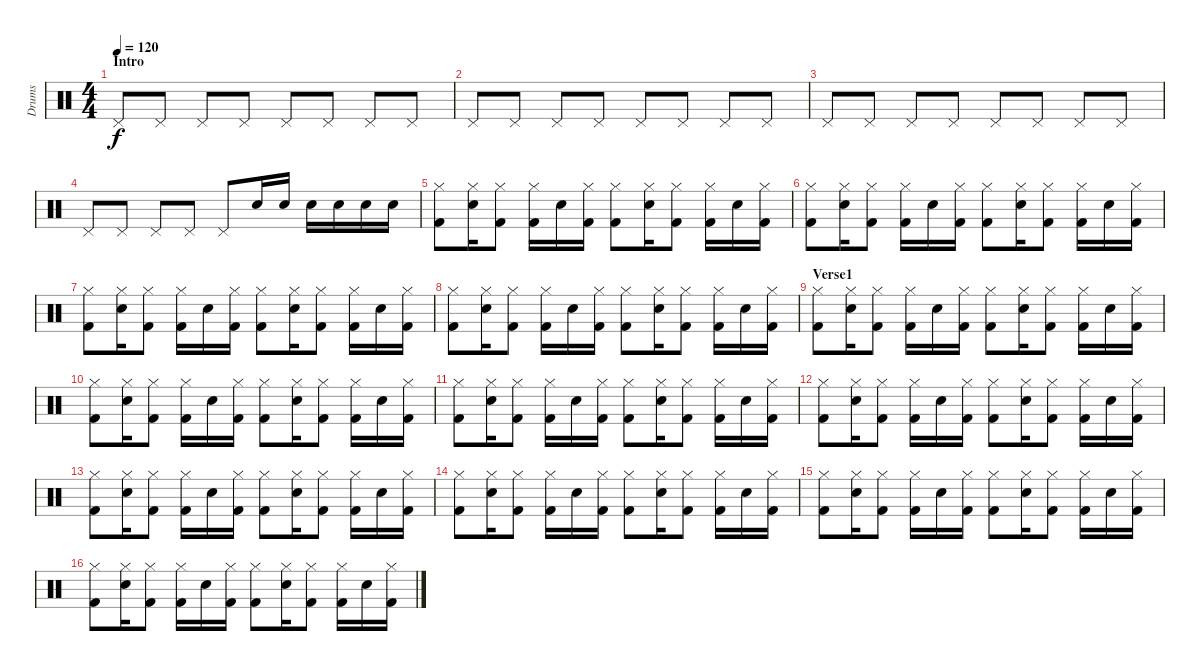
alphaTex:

\track ("Drums" "Drums") {instrument percussion}
\staff {score}
\articulation defaults
\ts (4 4)
\section ("" "Intro")
\tempo 120
\clef neutral
\ks c "Pedal Hi-Hat (hit)".8{dy f} "Pedal Hi-Hat (hit)".8 "Pedal Hi-Hat (hit)".8 "Pedal Hi-Hat (hit)".8 "Pedal Hi-Hat (hit)".8 "Pedal Hi-Hat (hit)".8 "Pedal Hi-Hat (hit)".8 "Pedal Hi-Hat (hit)".8
|
"Pedal Hi-Hat (hit)".8 "Pedal Hi-Hat (hit)".8 "Pedal Hi-Hat (hit)".8 "Pedal Hi-Hat (hit)".8 "Pedal Hi-Hat (hit)".8 "Pedal Hi-Hat (hit)".8 "Pedal Hi-Hat (hit)".8 "Pedal Hi-Hat (hit)".8 |
"Pedal Hi-Hat (hit)".8 "Pedal Hi-Hat (hit)".8 "Pedal Hi-Hat (hit)".8 "Pedal Hi-Hat (hit)".8 "Pedal Hi-Hat (hit)".8 "Pedal Hi-Hat (hit)".8 "Pedal Hi-Hat (hit)".8 "Pedal Hi-Hat (hit)".8 |
"Pedal Hi-Hat (hit)".8 "Pedal Hi-Hat (hit)".8 "Pedal Hi-Hat (hit)".8 "Pedal Hi-Hat (hit)".8 "Pedal Hi-Hat (hit)".8 "Electric Snare (hit)".16 "Electric Snare (hit)".16 "Electric Snare (hit)".16 "Electric Snare (hit)".16 "Electric Snare (hit)".16 "Electric Snare (hit)".16 |
("Hi-Hat (closed)" "Kick (hit) 2").8 ("Hi-Hat (closed)" "Electric Snare (hit)").16 ("Hi-Hat (closed)" "Kick (hit) 2").8 ("Hi-Hat (closed)" "Kick (hit) 2").16 "Electric Snare (hit)".16 ("Hi-Hat (closed)" "Kick (hit) 2").16 ("Hi-Hat (closed)" "Kick (hit) 2").8 ("Hi-Hat (closed)" "Electric Snare (hit)").16 ("Hi-Hat (closed)" "Kick (hit) 2").8 ("Hi-Hat (closed)" "Kick (hit) 2").16 "Electric Snare (hit)".16 ("Hi-Hat (closed)" "Kick (hit) 2").16 |
("Hi-Hat (closed)" "Kick (hit) 2").8 ("Hi-Hat (closed)" "Electric Snare (hit)").16 ("Hi-Hat (closed)" "Kick (hit) 2").8 ("Hi-Hat (closed)" "Kick (hit) 2").16 "Electric Snare (hit)".16 ("Hi-Hat (closed)" "Kick (hit) 2").16 ("Hi-Hat (closed)" "Kick (hit) 2").8 ("Hi-Hat (closed)" "Electric Snare (hit)").16 ("Hi-Hat (closed)" "Kick (hit) 2").8 ("Hi-Hat (closed)" "Kick (hit) 2").16 "Electric Snare (hit)".16 ("Hi-Hat (closed)" "Kick (hit) 2").16 |
("Hi-Hat (closed)" "Kick (hit) 2").8 ("Hi-Hat (closed)" "Electric Snare (hit)").16 ("Hi-Hat (closed)" "Kick (hit) 2").8 ("Hi-Hat (closed)" "Kick (hit) 2").16 "Electric Snare (hit)".16 ("Hi-Hat (closed)" "Kick (hit) 2").16 ("Hi-Hat (closed)" "Kick (hit) 2").8 ("Hi-Hat (closed)" "Electric Snare (hit)").16 ("Hi-Hat (closed)" "Kick (hit) 2").8 ("Hi-Hat (closed)" "Kick (hit) 2").16 "Electric Snare (hit)".16 ("Hi-Hat (closed)" "Kick (hit) 2").16 |
("Hi-Hat (closed)" "Kick (hit) 2").8 ("Hi-Hat (closed)" "Electric Snare (hit)").16 ("Hi-Hat (closed)" "Kick (hit) 2").8 ("Hi-Hat (closed)" "Kick (hit) 2").16 "Electric Snare (hit)".16 ("Hi-Hat (closed)" "Kick (hit) 2").16 ("Hi-Hat (closed)" "Kick (hit) 2").8 ("Hi-Hat (closed)" "Electric Snare (hit)").16 ("Hi-Hat (closed)" "Kick (hit) 2").8 ("Hi-Hat (closed)" "Kick (hit) 2").16 "Electric Snare (hit)".16 ("Hi-Hat (closed)" "Kick (hit) 2").16 |
\section ("" "Verse1")
("Hi-Hat (closed)" "Kick (hit) 2").8 ("Hi-Hat (closed)" "Electric Snare (hit)").16 ("Hi-Hat (closed)" "Kick (hit) 2").8 ("Hi-Hat (closed)" "Kick (hit) 2").16 "Electric Snare (hit)".16 ("Hi-Hat (closed)" "Kick (hit) 2").16 ("Hi-Hat (closed)" "Kick (hit) 2").8 ("Hi-Hat (closed)" "Electric Snare (hit)").16 ("Hi-Hat (closed)" "Kick (hit) 2").8 ("Hi-Hat (closed)" "Kick (hit) 2").16 "Electric Snare (hit)".16 ("Hi-Hat (closed)" "Kick (hit) 2").16 |
("Hi-Hat (closed)" "Kick (hit) 2").8 ("Hi-Hat (closed)" "Electric Snare (hit)").16 ("Hi-Hat (closed)" "Kick (hit) 2").8 ("Hi-Hat (closed)" "Kick (hit) 2").16 "Electric Snare (hit)".16 ("Hi-Hat (closed)" "Kick (hit) 2").16 ("Hi-Hat (closed)" "Kick (hit) 2").8 ("Hi-Hat (closed)" "Electric Snare (hit)").16 ("Hi-Hat (closed)" "Kick (hit) 2").8 ("Hi-Hat (closed)" "Kick (hit) 2").16 "Electric Snare (hit)".16 ("Hi-Hat (closed)" "Kick (hit) 2").16 |
("Hi-Hat (closed)" "Kick (hit) 2").8 ("Hi-Hat (closed)" "Electric Snare (hit)").16 ("Hi-Hat (closed)" "Kick (hit) 2").8 ("Hi-Hat (closed)" "Kick (hit) 2").16 "Electric Snare (hit)".16 ("Hi-Hat (closed)" "Kick (hit) 2").16 ("Hi-Hat (closed)" "Kick (hit) 2").8 ("Hi-Hat (closed)" "Electric Snare (hit)").16 ("Hi-Hat (closed)" "Kick (hit) 2").8 ("Hi-Hat (closed)" "Kick (hit) 2").16 "Electric Snare (hit)".16 ("Hi-Hat (closed)" "Kick (hit) 2").16 |
("Hi-Hat (closed)" "Kick (hit) 2").8 ("Hi-Hat (closed)" "Electric Snare (hit)").16 ("Hi-Hat (closed)" "Kick (hit) 2").8 ("Hi-Hat (closed)" "Kick (hit) 2").16 "Electric Snare (hit)".16 ("Hi-Hat (closed)" "Kick (hit) 2").16 ("Hi-Hat (closed)" "Kick (hit) 2").8 ("Hi-Hat (closed)" "Electric Snare (hit)").16 ("Hi-Hat (closed)" "Kick (hit) 2").8 ("Hi-Hat (closed)" "Kick (hit) 2").16 "Electric Snare (hit)".16 ("Hi-Hat (closed)" "Kick (hit) 2").16 |
("Hi-Hat (closed)" "Kick (hit) 2").8 ("Hi-Hat (closed)" "Electric Snare (hit)").16 ("Hi-Hat (closed)" "Kick (hit) 2").8 ("Hi-Hat (closed)" "Kick (hit) 2").16 "Electric Snare (hit)".16 ("Hi-Hat (closed)" "Kick (hit) 2").16 ("Hi-Hat (closed)" "Kick (hit) 2").8 ("Hi-Hat (closed)" "Electric Snare (hit)").16 ("Hi-Hat (closed)" "Kick (hit) 2").8 ("Hi-Hat (closed)" "Kick (hit) 2").16 "Electric Snare (hit)".16 ("Hi-Hat (closed)" "Kick (hit) 2").16 |
("Hi-Hat (closed)" "Kick (hit) 2").8 ("Hi-Hat (closed)" "Electric Snare (hit)").16 ("Hi-Hat (closed)" "Kick (hit) 2").8 ("Hi-Hat (closed)" "Kick (hit) 2").16 "Electric Snare (hit)".16 ("Hi-Hat (closed)" "Kick (hit) 2").16 ("Hi-Hat (closed)" "Kick (hit) 2").8 ("Hi-Hat (closed)" "Electric Snare (hit)").16 ("Hi-Hat (closed)" "Kick (hit) 2").8 ("Hi-Hat (closed)" "Kick (hit) 2").16 "Electric Snare (hit)".16 ("Hi-Hat (closed)" "Kick (hit) 2").16 |
("Hi-Hat (closed)" "Kick (hit) 2").8 ("Hi-Hat (closed)" "Electric Snare (hit)").16 ("Hi-Hat (closed)" "Kick (hit) 2").8 ("Hi-Hat (closed)" "Kick (hit) 2").16 "Electric Snare (hit)".16 ("Hi-Hat (closed)" "Kick (hit) 2").16 ("Hi-Hat (closed)" "Kick (hit) 2").8 ("Hi-Hat (closed)" "Electric Snare (hit)").16 ("Hi-Hat (closed)" "Kick (hit) 2").8 ("Hi-Hat (closed)" "Kick (hit) 2").16 "Electric Snare (hit)".16 ("Hi-Hat (closed)" "Kick (hit) 2").16 |
("Hi-Hat (closed)" "Kick (hit) 2").8 ("Hi-Hat (closed)" "Electric Snare (hit)").16 ("Hi-Hat (closed)" "Kick (hit) 2").8 ("Hi-Hat (closed)" "Kick (hit) 2").16 "Electric Snare (hit)".16 ("Hi-Hat (closed)" "Kick (hit) 2").16 ("Hi-Hat (closed)" "Kick (hit) 2").8 ("Hi-Hat (closed)" "Electric Snare (hit)").16 ("Hi-Hat (closed)" "Kick (hit) 2").8 ("Hi-Hat (closed)" "Kick (hit) 2").16 "Electric Snare (hit)".16 ("Hi-Hat (closed)" "Kick (hit) 2").16
